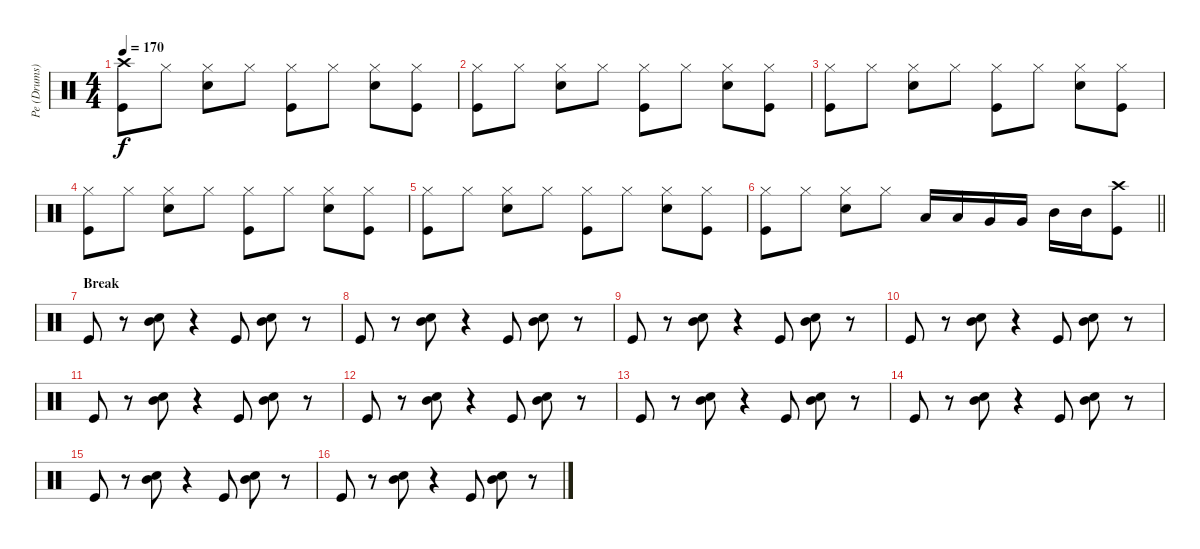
\track ("Pe (Drums)" "Pe (Drums)") {instrument percussion}
\staff {score}
\articulation defaults
\ts (4 4)
\tempo 170
\clef neutral
\ks c
("Crash high (hit)" "Kick (hit)").8{dy f} "Hi-Hat (closed)".8 ("Hi-Hat (closed)" "Snare (hit) 2").8 "Hi-Hat (closed)".8 ("Hi-Hat (closed)" "Kick (hit)").8 "Hi-Hat (closed)".8 ("Hi-Hat (closed)" "Snare (hit) 2").8 ("Hi-Hat (closed)" "Kick (hit)").8 |
("Hi-Hat (closed)" "Kick (hit)").8 "Hi-Hat (closed)".8 ("Hi-Hat (closed)" "Snare (hit) 2").8 "Hi-Hat (closed)".8 ("Hi-Hat (closed)" "Kick (hit)").8 "Hi-Hat (closed)".8 ("Hi-Hat (closed)" "Snare (hit) 2").8 ("Hi-Hat (closed)" "Kick (hit)").8 |
("Hi-Hat (closed)" "Kick (hit)").8 "Hi-Hat (closed)".8 ("Hi-Hat (closed)" "Snare (hit) 2").8 "Hi-Hat (closed)".8 ("Hi-Hat (closed)" "Kick (hit)").8 "Hi-Hat (closed)".8 ("Hi-Hat (closed)" "Snare (hit) 2").8 ("Hi-Hat (closed)" "Kick (hit)").8 |
("Hi-Hat (closed)" "Kick (hit)").8 "Hi-Hat (closed)".8 ("Hi-Hat (closed)" "Snare (hit) 2").8 "Hi-Hat (closed)".8 ("Hi-Hat (closed)" "Kick (hit)").8 "Hi-Hat (closed)".8 ("Hi-Hat (closed)" "Snare (hit) 2").8 ("Hi-Hat (closed)" "Kick (hit)").8 |
("Hi-Hat (closed)" "Kick (hit)").8 "Hi-Hat (closed)".8 ("Hi-Hat (closed)" "Snare (hit) 2").8 "Hi-Hat (closed)".8 ("Hi-Hat (closed)" "Kick (hit)").8 "Hi-Hat (closed)".8 ("Hi-Hat (closed)" "Snare (hit) 2").8 ("Hi-Hat (closed)" "Kick (hit)").8 |
\barLineRight lightlight
("Hi-Hat (closed)" "Kick (hit)").8 "Hi-Hat (closed)".8 ("Hi-Hat (closed)" "Snare (hit) 2").8 "Hi-Hat (closed)".8 "Low Floor Tom (hit)".16 "Low Floor Tom (hit)".16 "Very Low Tom (hit)".16 "Very Low Tom (hit)".16 "Mid Tom (hit)".16 "Mid Tom (hit)".16 ("Crash high (hit)" "Kick (hit)").8 |
\section ("" "Break")
"Kick (hit)".8 r.8 ("Mid Tom (hit)" "Snare (hit) 2").8 r.4 "Kick (hit)".8 ("Mid Tom (hit)" "Snare (hit) 2").8 r.8 |
"Kick (hit)".8 r.8 ("Mid Tom (hit)" "Snare (hit) 2").8 r.4 "Kick (hit)".8 ("Mid Tom (hit)" "Snare (hit) 2").8 r.8 |
"Kick (hit)".8 r.8 ("Mid Tom (hit)" "Snare (hit) 2").8 r.4 "Kick (hit)".8 ("Mid Tom (hit)" "Snare (hit) 2").8 r.8 |
"Kick (hit)".8 r.8 ("Mid Tom (hit)" "Snare (hit) 2").8 r.4 "Kick (hit)".8 ("Mid Tom (hit)" "Snare (hit) 2").8 r.8 |
"Kick (hit)".8 r.8 ("Mid Tom (hit)" "Snare (hit) 2").8 r.4 "Kick (hit)".8 ("Mid Tom (hit)" "Snare (hit) 2").8 r.8 |
"Kick (hit)".8 r.8 ("Mid Tom (hit)" "Snare (hit) 2").8 r.4 "Kick (hit)".8 ("Mid Tom (hit)" "Snare (hit) 2").8 r.8 |
"Kick (hit)".8 r.8 ("Mid Tom (hit)" "Snare (hit) 2").8 r.4 "Kick (hit)".8 ("Mid Tom (hit)" "Snare (hit) 2").8 r.8 |
"Kick (hit)".8 r.8 ("Mid Tom (hit)" "Snare (hit) 2").8 r.4 "Kick (hit)".8 ("Mid Tom (hit)" "Snare (hit) 2").8 r.8 |
"Kick (hit)".8 r.8 ("Mid Tom (hit)" "Snare (hit) 2").8 r.4 "Kick (hit)".8 ("Mid Tom (hit)" "Snare (hit) 2").8 r.8 |
"Kick (hit)".8 r.8 ("Mid Tom (hit)" "Snare (hit) 2").8 r.4 "Kick (hit)".8 ("Mid Tom (hit)" "Snare (hit) 2").8 r.8
